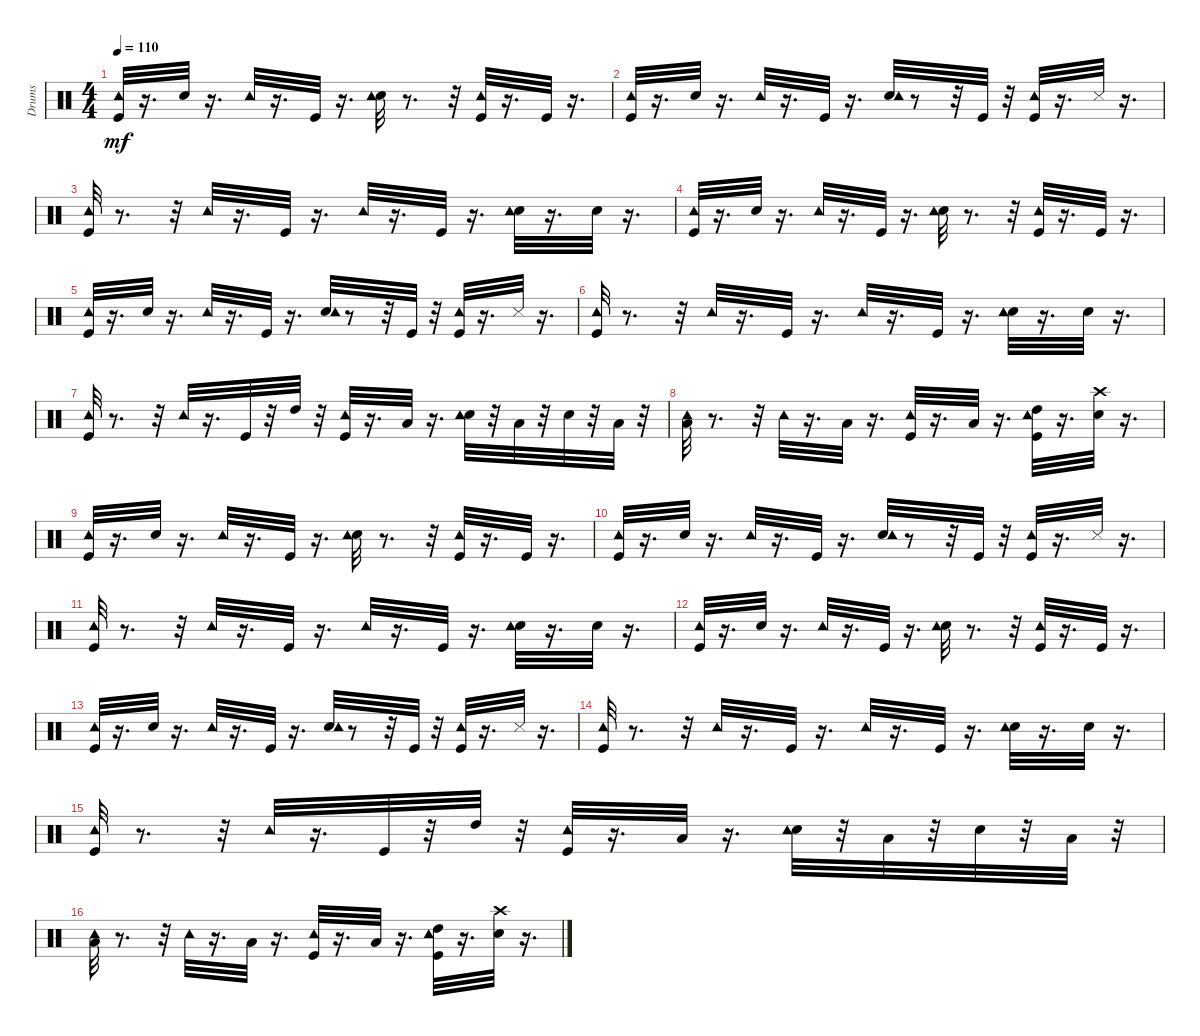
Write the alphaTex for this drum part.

\track ("Drums" "Drums") {instrument percussion}
\staff {score}
\articulation defaults
\ts (4 4)
\tempo 110
\clef neutral
\ks c
("Kick (hit)" "Tambourine (hit)").32{dy mf} r.16{d} "Snare (hit) 2".32 r.16{d} "Tambourine (hit)".32 r.16{d} "Kick (hit)".32 r.16{d} ("Snare (hit) 2" "Tambourine (hit)").32 r.8{d} r.32 ("Kick (hit)" "Tambourine (hit)").32 r.16{d} "Kick (hit)".32 r.16{d} |
("Kick (hit)" "Tambourine (hit)").32 r.16{d} "Snare (hit) 2".32 r.16{d} "Tambourine (hit)".32 r.16{d} "Kick (hit)".32 r.16{d} ("Snare (hit) 2" "Tambourine (hit)").32 r.8 r.32 "Kick (hit)".32 r.32 ("Kick (hit)" "Tambourine (hit)").32 r.16{d} "Snare (side stick) 3".32 r.16{d} |
("Kick (hit)" "Tambourine (hit)").32 r.8{d} r.32 "Tambourine (hit)".32 r.16{d} "Kick (hit)".32 r.16{d} "Tambourine (hit)".32 r.16{d} "Kick (hit)".32 r.16{d} ("Snare (hit) 2" "Tambourine (hit)").32 r.16{d} "Snare (hit) 2".32 r.16{d} |
("Kick (hit)" "Tambourine (hit)").32 r.16{d} "Snare (hit) 2".32 r.16{d} "Tambourine (hit)".32 r.16{d} "Kick (hit)".32 r.16{d} ("Snare (hit) 2" "Tambourine (hit)").32 r.8{d} r.32 ("Kick (hit)" "Tambourine (hit)").32 r.16{d} "Kick (hit)".32 r.16{d} |
("Kick (hit)" "Tambourine (hit)").32 r.16{d} "Snare (hit) 2".32 r.16{d} "Tambourine (hit)".32 r.16{d} "Kick (hit)".32 r.16{d} ("Snare (hit) 2" "Tambourine (hit)").32 r.8 r.32 "Kick (hit)".32 r.32 ("Kick (hit)" "Tambourine (hit)").32 r.16{d} "Snare (side stick) 3".32 r.16{d} |
("Kick (hit)" "Tambourine (hit)").32 r.8{d} r.32 "Tambourine (hit)".32 r.16{d} "Kick (hit)".32 r.16{d} "Tambourine (hit)".32 r.16{d} "Kick (hit)".32 r.16{d} ("Snare (hit) 2" "Tambourine (hit)").32 r.16{d} "Snare (hit) 2".32 r.16{d} |
("Kick (hit)" "Tambourine (hit)").32 r.8{d} r.32 "Tambourine (hit)".32 r.16{d} "Kick (hit)".32 r.32 "High Tom (hit)".32 r.32 ("Kick (hit)" "Tambourine (hit)").32 r.16{d} "Low Tom (hit)".32 r.16{d} ("Snare (hit) 2" "Tambourine (hit)").32 r.32 "Low Floor Tom (hit)".32 r.32 "Snare (hit) 2".32 r.32 "Low Floor Tom (hit)".32 r.32 |
("Low Floor Tom (hit)" "Tambourine (hit)").32 r.8{d} r.32 "Tambourine (hit)".32 r.16{d} "Low Floor Tom (hit)".32 r.16{d} ("Kick (hit)" "Tambourine (hit)").32 r.16{d} "Low Floor Tom (hit)".32 r.16{d} ("Kick (hit)" "High Tom (hit)" "Tambourine (hit)").32 r.16{d} ("Snare (hit) 2" "Crash high (hit)").32 r.16{d} |
("Kick (hit)" "Tambourine (hit)").32 r.16{d} "Snare (hit) 2".32 r.16{d} "Tambourine (hit)".32 r.16{d} "Kick (hit)".32 r.16{d} ("Snare (hit) 2" "Tambourine (hit)").32 r.8{d} r.32 ("Kick (hit)" "Tambourine (hit)").32 r.16{d} "Kick (hit)".32 r.16{d} |
("Kick (hit)" "Tambourine (hit)").32 r.16{d} "Snare (hit) 2".32 r.16{d} "Tambourine (hit)".32 r.16{d} "Kick (hit)".32 r.16{d} ("Snare (hit) 2" "Tambourine (hit)").32 r.8 r.32 "Kick (hit)".32 r.32 ("Kick (hit)" "Tambourine (hit)").32 r.16{d} "Snare (side stick) 3".32 r.16{d} |
("Kick (hit)" "Tambourine (hit)").32 r.8{d} r.32 "Tambourine (hit)".32 r.16{d} "Kick (hit)".32 r.16{d} "Tambourine (hit)".32 r.16{d} "Kick (hit)".32 r.16{d} ("Snare (hit) 2" "Tambourine (hit)").32 r.16{d} "Snare (hit) 2".32 r.16{d} |
("Kick (hit)" "Tambourine (hit)").32 r.16{d} "Snare (hit) 2".32 r.16{d} "Tambourine (hit)".32 r.16{d} "Kick (hit)".32 r.16{d} ("Snare (hit) 2" "Tambourine (hit)").32 r.8{d} r.32 ("Kick (hit)" "Tambourine (hit)").32 r.16{d} "Kick (hit)".32 r.16{d} |
("Kick (hit)" "Tambourine (hit)").32 r.16{d} "Snare (hit) 2".32 r.16{d} "Tambourine (hit)".32 r.16{d} "Kick (hit)".32 r.16{d} ("Snare (hit) 2" "Tambourine (hit)").32 r.8 r.32 "Kick (hit)".32 r.32 ("Kick (hit)" "Tambourine (hit)").32 r.16{d} "Snare (side stick) 3".32 r.16{d} |
("Kick (hit)" "Tambourine (hit)").32 r.8{d} r.32 "Tambourine (hit)".32 r.16{d} "Kick (hit)".32 r.16{d} "Tambourine (hit)".32 r.16{d} "Kick (hit)".32 r.16{d} ("Snare (hit) 2" "Tambourine (hit)").32 r.16{d} "Snare (hit) 2".32 r.16{d} |
("Kick (hit)" "Tambourine (hit)").32 r.8{d} r.32 "Tambourine (hit)".32 r.16{d} "Kick (hit)".32 r.32 "High Tom (hit)".32 r.32 ("Kick (hit)" "Tambourine (hit)").32 r.16{d} "Low Tom (hit)".32 r.16{d} ("Snare (hit) 2" "Tambourine (hit)").32 r.32 "Low Floor Tom (hit)".32 r.32 "Snare (hit) 2".32 r.32 "Low Floor Tom (hit)".32 r.32 |
("Low Floor Tom (hit)" "Tambourine (hit)").32 r.8{d} r.32 "Tambourine (hit)".32 r.16{d} "Low Floor Tom (hit)".32 r.16{d} ("Kick (hit)" "Tambourine (hit)").32 r.16{d} "Low Floor Tom (hit)".32 r.16{d} ("Kick (hit)" "High Tom (hit)" "Tambourine (hit)").32 r.16{d} ("Snare (hit) 2" "Crash high (hit)").32 r.16{d}
